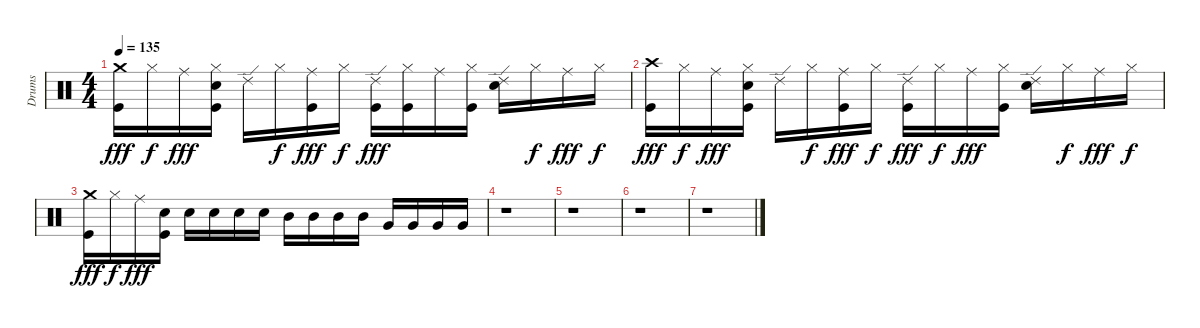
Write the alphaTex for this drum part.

\track ("Drums" "Drums") {instrument percussion}
\staff {score}
\articulation defaults
\ts (4 4)
\tempo 135
\clef neutral
\ks c
("Crash medium (hit)" "Kick (hit)").16{dy fff} "Hi-Hat (closed)".16{dy f} "Ride (middle)".16{dy fff} ("Hi-Hat (closed)" "Snare (hit) 2" "Kick (hit)").16 "Ride (edge) 2".16 "Hi-Hat (closed)".16{dy f} ("Ride (middle)" "Kick (hit)").16{dy fff} "Hi-Hat (closed)".16{dy f} ("Ride (edge) 2" "Kick (hit)").16{dy fff} ("Hi-Hat (closed)" "Kick (hit)").16 "Ride (middle)".16 ("Hi-Hat (closed)" "Kick (hit)").16 ("Ride (edge) 2" "Snare (hit) 2").16 "Hi-Hat (closed)".16{dy f} "Ride (middle)".16{dy fff} "Hi-Hat (closed)".16{dy f} |
("Crash high (hit)" "Kick (hit)").16{dy fff} "Hi-Hat (closed)".16{dy f} "Ride (middle)".16{dy fff} ("Hi-Hat (closed)" "Snare (hit) 2" "Kick (hit)").16 "Ride (edge) 2".16 "Hi-Hat (closed)".16{dy f} ("Ride (middle)" "Kick (hit)").16{dy fff} "Hi-Hat (closed)".16{dy f} ("Ride (edge) 2" "Kick (hit)").16{dy fff} "Hi-Hat (closed)".16{dy f} "Ride (middle)".16{dy fff} ("Hi-Hat (closed)" "Kick (hit)").16 ("Ride (edge) 2" "Snare (hit) 2").16 "Hi-Hat (closed)".16{dy f} "Ride (middle)".16{dy fff} "Hi-Hat (closed)".16{dy f} |
("Crash medium (hit)" "Kick (hit)").16{dy fff} "Hi-Hat (closed)".16{dy f} "Ride (middle)".16{dy fff} ("Snare (hit) 2" "Kick (hit)").16 "Snare (hit) 2".16 "Snare (hit) 2".16 "Snare (hit) 2".16 "Snare (hit) 2".16 "Mid Tom (hit)".16 "Mid Tom (hit)".16 "Mid Tom (hit)".16 "Mid Tom (hit)".16 "Very Low Tom (hit)".16 "Very Low Tom (hit)".16 "Very Low Tom (hit)".16 "Very Low Tom (hit)".16 |
r.1 |
r.1 |
r.1 |
r.1
